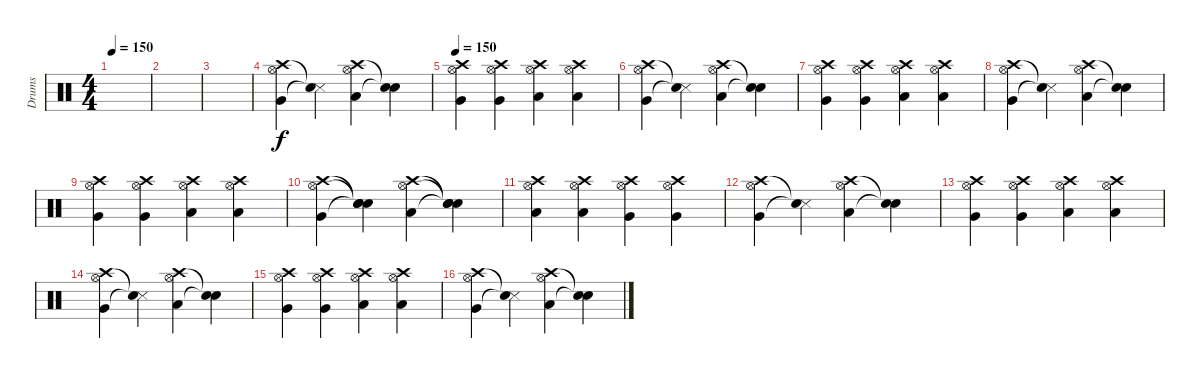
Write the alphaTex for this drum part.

\track ("Drums" "Drums") {instrument percussion}
\staff {score}
\articulation defaults
\ts (4 4)
\tempo 150
\tempo 130
\tempo 150
\clef neutral
\ks c
|
|
|
("Crash high (hit)" "Very Low Tom (hit)" "Hi-Hat (open)").4 ("Snare (side stick) 3"{t} "Snare (hit)"{t}).4 ("Crash high (hit)" "Low Floor Tom (hit)" "Hi-Hat (open)").4 ("Snare (hit)"{t} "Snare (hit)"{t}).4 |
\tempo 150
("Crash high (hit)" "Very Low Tom (hit)" "Hi-Hat (open)").4 ("Crash high (hit)" "Very Low Tom (hit)" "Hi-Hat (open)").4 ("Crash high (hit)" "Low Floor Tom (hit)" "Hi-Hat (open)").4 ("Crash high (hit)" "Low Floor Tom (hit)" "Hi-Hat (open)").4 |
("Crash high (hit)" "Very Low Tom (hit)" "Hi-Hat (open)").4 ("Snare (side stick) 3"{t} "Snare (hit)"{t}).4 ("Crash high (hit)" "Low Floor Tom (hit)" "Hi-Hat (open)").4 ("Snare (hit)"{t} "Snare (hit)"{t}).4 |
("Crash high (hit)" "Very Low Tom (hit)" "Hi-Hat (open)").4 ("Crash high (hit)" "Very Low Tom (hit)" "Hi-Hat (open)").4 ("Crash high (hit)" "Low Floor Tom (hit)" "Hi-Hat (open)").4 ("Crash high (hit)" "Low Floor Tom (hit)" "Hi-Hat (open)").4 |
("Crash high (hit)" "Very Low Tom (hit)" "Hi-Hat (open)").4 ("Snare (side stick) 3"{t} "Snare (hit)"{t}).4 ("Crash high (hit)" "Low Floor Tom (hit)" "Hi-Hat (open)").4 ("Snare (hit)"{t} "Snare (hit)"{t}).4 |
("Crash high (hit)" "Very Low Tom (hit)" "Hi-Hat (open)").4 ("Crash high (hit)" "Very Low Tom (hit)" "Hi-Hat (open)").4 ("Crash high (hit)" "Low Floor Tom (hit)" "Hi-Hat (open)").4 ("Crash high (hit)" "Low Floor Tom (hit)" "Hi-Hat (open)").4 |
("Crash high (hit)" "Very Low Tom (hit)" "Hi-Hat (open)").4 ("Snare (hit)"{t} "Snare (hit)"{t} "Snare (hit)"{t}).4 ("Crash high (hit)" "Low Floor Tom (hit)" "Hi-Hat (open)").4 ("Snare (hit)"{t} "Snare (hit)"{t} "Snare (hit)"{t}).4 |
("Crash high (hit)" "Low Floor Tom (hit)" "Hi-Hat (open)").4 ("Crash high (hit)" "Low Floor Tom (hit)" "Hi-Hat (open)").4 ("Crash high (hit)" "Very Low Tom (hit)" "Hi-Hat (open)").4 ("Crash high (hit)" "Very Low Tom (hit)" "Hi-Hat (open)").4 |
("Crash high (hit)" "Very Low Tom (hit)" "Hi-Hat (open)").4 ("Snare (side stick) 3"{t} "Snare (hit)"{t}).4 ("Crash high (hit)" "Low Floor Tom (hit)" "Hi-Hat (open)").4 ("Snare (hit)"{t} "Snare (hit)"{t}).4 |
("Crash high (hit)" "Very Low Tom (hit)" "Hi-Hat (open)").4 ("Crash high (hit)" "Very Low Tom (hit)" "Hi-Hat (open)").4 ("Crash high (hit)" "Low Floor Tom (hit)" "Hi-Hat (open)").4 ("Crash high (hit)" "Low Floor Tom (hit)" "Hi-Hat (open)").4 |
("Crash high (hit)" "Very Low Tom (hit)" "Hi-Hat (open)").4 ("Snare (side stick) 3"{t} "Snare (hit)"{t}).4 ("Crash high (hit)" "Low Floor Tom (hit)" "Hi-Hat (open)").4 ("Snare (hit)"{t} "Snare (hit)"{t}).4 |
("Crash high (hit)" "Very Low Tom (hit)" "Hi-Hat (open)").4 ("Crash high (hit)" "Very Low Tom (hit)" "Hi-Hat (open)").4 ("Crash high (hit)" "Low Floor Tom (hit)" "Hi-Hat (open)").4 ("Crash high (hit)" "Low Floor Tom (hit)" "Hi-Hat (open)").4 |
("Crash high (hit)" "Very Low Tom (hit)" "Hi-Hat (open)").4 ("Snare (side stick) 3"{t} "Snare (hit)"{t}).4 ("Crash high (hit)" "Low Floor Tom (hit)" "Hi-Hat (open)").4 ("Snare (hit)"{t} "Snare (hit)"{t}).4
